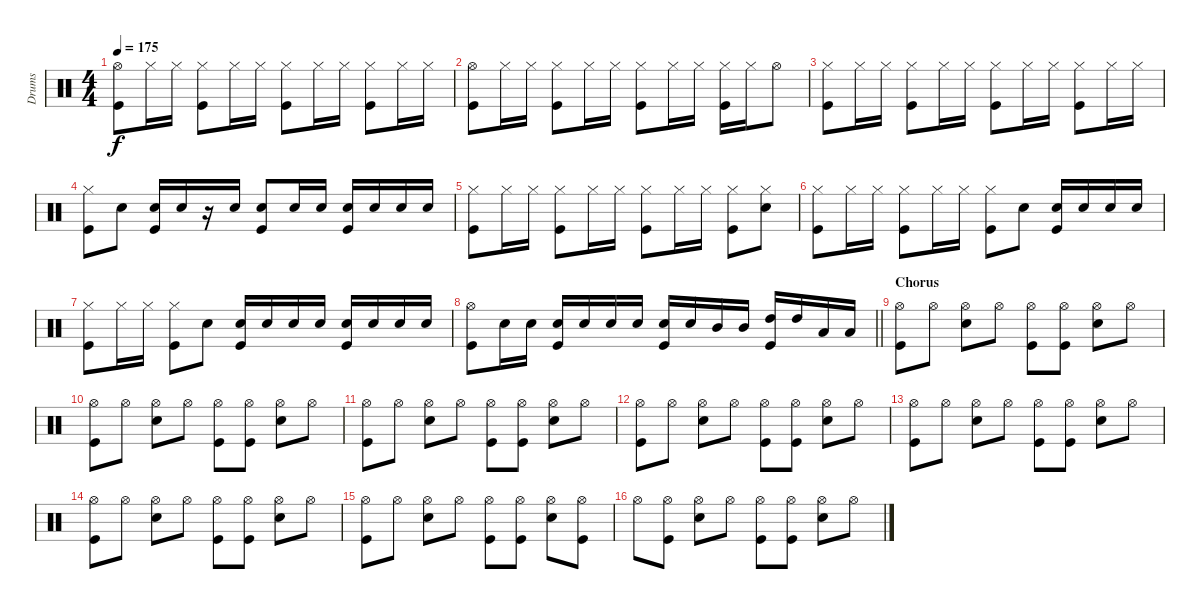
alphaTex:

\track ("Drums" "Drums") {instrument percussion}
\staff {score}
\articulation defaults
\ts (4 4)
\tempo 175
\clef neutral
\ks c
("Hi-Hat (open)" "Kick (hit)").8{dy f} "Hi-Hat (closed)".16 "Hi-Hat (closed)".16 ("Hi-Hat (closed)" "Kick (hit)").8 "Hi-Hat (closed)".16 "Hi-Hat (closed)".16 ("Hi-Hat (closed)" "Kick (hit)").8 "Hi-Hat (closed)".16 "Hi-Hat (closed)".16 ("Hi-Hat (closed)" "Kick (hit)").8 "Hi-Hat (closed)".16 "Hi-Hat (closed)".16 |
("Hi-Hat (open)" "Kick (hit)").8 "Hi-Hat (closed)".16 "Hi-Hat (closed)".16 ("Hi-Hat (closed)" "Kick (hit)").8 "Hi-Hat (closed)".16 "Hi-Hat (closed)".16 ("Hi-Hat (closed)" "Kick (hit)").8 "Hi-Hat (closed)".16 "Hi-Hat (closed)".16 ("Hi-Hat (closed)" "Kick (hit)").16 "Hi-Hat (closed)".16 "Hi-Hat (open)".8 |
("Hi-Hat (closed)" "Kick (hit)").8 "Hi-Hat (closed)".16 "Hi-Hat (closed)".16 ("Hi-Hat (closed)" "Kick (hit)").8 "Hi-Hat (closed)".16 "Hi-Hat (closed)".16 ("Hi-Hat (closed)" "Kick (hit)").8 "Hi-Hat (closed)".16 "Hi-Hat (closed)".16 ("Hi-Hat (closed)" "Kick (hit)").8 "Hi-Hat (closed)".16 "Hi-Hat (closed)".16 |
("Hi-Hat (closed)" "Kick (hit)").8 "Snare (hit) 2".8 ("Snare (hit) 2" "Kick (hit)").16 "Snare (hit) 2".16 r.16 "Snare (hit) 2".16 ("Snare (hit) 2" "Kick (hit)").8 "Snare (hit) 2".16 "Snare (hit) 2".16 ("Snare (hit) 2" "Kick (hit)").16 "Snare (hit) 2".16 "Snare (hit) 2".16 "Snare (hit) 2".16 |
("Hi-Hat (closed)" "Kick (hit)").8 "Hi-Hat (closed)".16 "Hi-Hat (closed)".16 ("Hi-Hat (closed)" "Kick (hit)").8 "Hi-Hat (closed)".16 "Hi-Hat (closed)".16 ("Hi-Hat (closed)" "Kick (hit)").8 "Hi-Hat (closed)".16 "Hi-Hat (closed)".16 ("Hi-Hat (closed)" "Kick (hit)").8 ("Hi-Hat (closed)" "Snare (hit) 2").8 |
("Hi-Hat (closed)" "Kick (hit)").8 "Hi-Hat (closed)".16 "Hi-Hat (closed)".16 ("Hi-Hat (closed)" "Kick (hit)").8 "Hi-Hat (closed)".16 "Hi-Hat (closed)".16 ("Hi-Hat (closed)" "Kick (hit)").8 "Snare (hit) 2".8 ("Snare (hit) 2" "Kick (hit)").16 "Snare (hit) 2".16 "Snare (hit) 2".16 "Snare (hit) 2".16 |
("Hi-Hat (closed)" "Kick (hit)").8 "Hi-Hat (closed)".16 "Hi-Hat (closed)".16 ("Hi-Hat (closed)" "Kick (hit)").8 "Snare (hit) 2".8 ("Snare (hit) 2" "Kick (hit)").16 "Snare (hit) 2".16 "Snare (hit) 2".16 "Snare (hit) 2".16 ("Snare (hit) 2" "Kick (hit)").16 "Snare (hit) 2".16 "Snare (hit) 2".16 "Snare (hit) 2".16 |
\barLineRight lightlight
("Hi-Hat (open)" "Kick (hit)").8 "Snare (hit) 2".16 "Snare (hit) 2".16 ("Snare (hit) 2" "Kick (hit)").16 "Snare (hit) 2".16 "Snare (hit) 2".16 "Snare (hit) 2".16 ("Snare (hit) 2" "Kick (hit)").16 "Snare (hit) 2".16 "Mid Tom (hit)".16 "Mid Tom (hit)".16 ("High Tom (hit)" "Kick (hit)").16 "High Tom (hit)".16 "Low Tom (hit)".16 "Low Tom (hit)".16 |
\section ("" "Chorus")
("Hi-Hat (open)" "Kick (hit)").8 "Hi-Hat (open)".8 ("Hi-Hat (open)" "Snare (hit) 2").8 "Hi-Hat (open)".8 ("Hi-Hat (open)" "Kick (hit)").8 ("Hi-Hat (open)" "Kick (hit)").8 ("Hi-Hat (open)" "Snare (hit) 2").8 "Hi-Hat (open)".8 |
("Hi-Hat (open)" "Kick (hit)").8 "Hi-Hat (open)".8 ("Hi-Hat (open)" "Snare (hit) 2").8 "Hi-Hat (open)".8 ("Hi-Hat (open)" "Kick (hit)").8 ("Hi-Hat (open)" "Kick (hit)").8 ("Hi-Hat (open)" "Snare (hit) 2").8 "Hi-Hat (open)".8 |
("Hi-Hat (open)" "Kick (hit)").8 "Hi-Hat (open)".8 ("Hi-Hat (open)" "Snare (hit) 2").8 "Hi-Hat (open)".8 ("Hi-Hat (open)" "Kick (hit)").8 ("Hi-Hat (open)" "Kick (hit)").8 ("Hi-Hat (open)" "Snare (hit) 2").8 "Hi-Hat (open)".8 |
("Hi-Hat (open)" "Kick (hit)").8 "Hi-Hat (open)".8 ("Hi-Hat (open)" "Snare (hit) 2").8 "Hi-Hat (open)".8 ("Hi-Hat (open)" "Kick (hit)").8 ("Hi-Hat (open)" "Kick (hit)").8 ("Hi-Hat (open)" "Snare (hit) 2").8 "Hi-Hat (open)".8 |
("Hi-Hat (open)" "Kick (hit)").8 "Hi-Hat (open)".8 ("Hi-Hat (open)" "Snare (hit) 2").8 "Hi-Hat (open)".8 ("Hi-Hat (open)" "Kick (hit)").8 ("Hi-Hat (open)" "Kick (hit)").8 ("Hi-Hat (open)" "Snare (hit) 2").8 "Hi-Hat (open)".8 |
("Hi-Hat (open)" "Kick (hit)").8 "Hi-Hat (open)".8 ("Hi-Hat (open)" "Snare (hit) 2").8 "Hi-Hat (open)".8 ("Hi-Hat (open)" "Kick (hit)").8 ("Hi-Hat (open)" "Kick (hit)").8 ("Hi-Hat (open)" "Snare (hit) 2").8 "Hi-Hat (open)".8 |
("Hi-Hat (open)" "Kick (hit)").8 "Hi-Hat (open)".8 ("Hi-Hat (open)" "Snare (hit) 2").8 "Hi-Hat (open)".8 ("Hi-Hat (open)" "Kick (hit)").8 ("Hi-Hat (open)" "Kick (hit)").8 ("Hi-Hat (open)" "Snare (hit) 2").8 ("Hi-Hat (open)" "Kick (hit)").8 |
"Hi-Hat (open)".8 ("Hi-Hat (open)" "Kick (hit)").8 ("Hi-Hat (open)" "Snare (hit) 2").8 "Hi-Hat (open)".8 ("Hi-Hat (open)" "Kick (hit)").8 ("Hi-Hat (open)" "Kick (hit)").8 ("Hi-Hat (open)" "Snare (hit) 2").8 "Hi-Hat (open)".8
